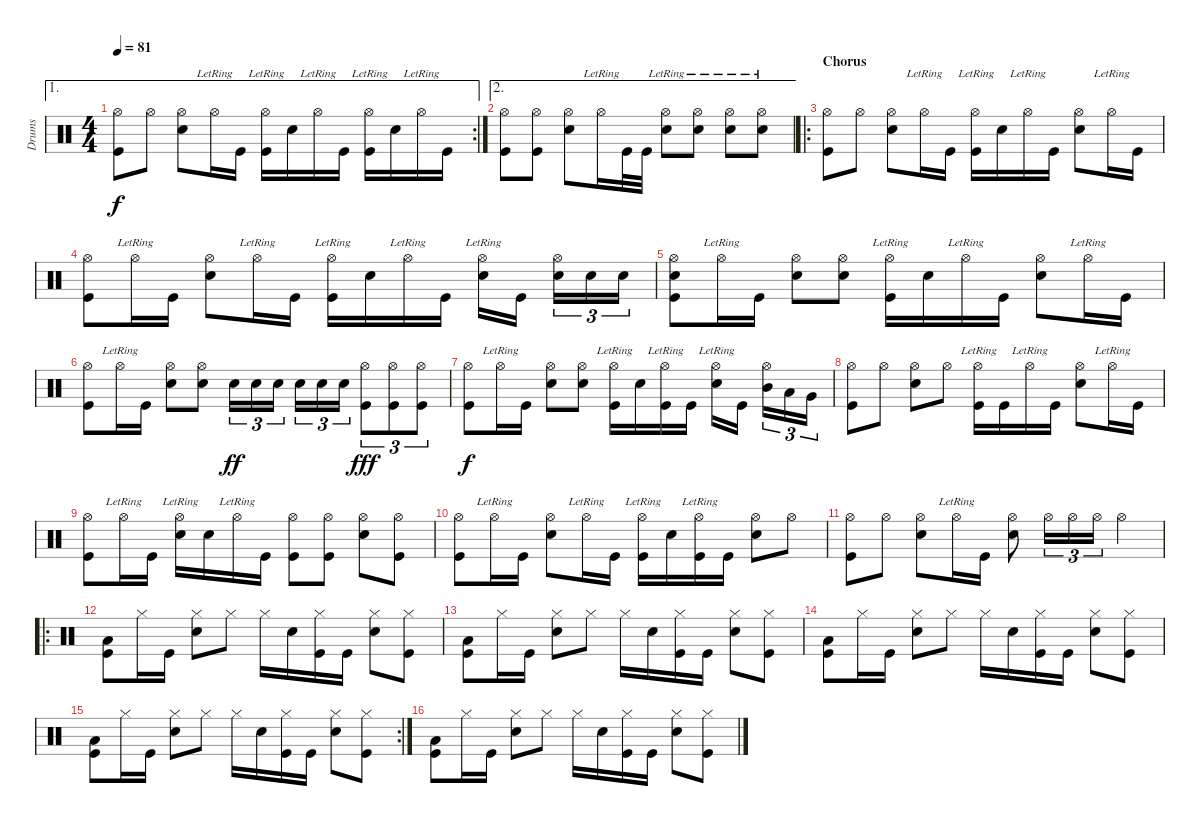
\track ("Drums" "Drums") {instrument percussion}
\staff {score}
\articulation defaults
\ae 1
\rc 2
\ts (4 4)
\tempo 81
\clef neutral
\ks c
("Hi-Hat (open)" "Kick (hit)").8{dy f} "Hi-Hat (open)".8 ("Hi-Hat (open)" "Snare (hit) 2").8 "Hi-Hat (open)"{lr}.16 "Kick (hit)".16 ("Hi-Hat (open)"{lr} "Kick (hit)").16 "Snare (hit) 2".16 "Hi-Hat (open)"{lr}.16 "Kick (hit)".16 ("Hi-Hat (open)"{lr} "Kick (hit)").16 "Snare (hit) 2".16 "Hi-Hat (open)"{lr}.16 "Kick (hit)".16 |
\ae 2
("Hi-Hat (open)" "Kick (hit)").8 ("Hi-Hat (open)" "Kick (hit)").8 ("Hi-Hat (open)" "Snare (hit) 2").8 "Hi-Hat (open)"{lr}.16 "Kick (hit)".32 "Kick (hit)".32 ("Hi-Hat (open)"{lr} "Snare (hit) 2").8 ("Hi-Hat (open)"{lr} "Snare (hit) 2").8 ("Hi-Hat (open)"{lr} "Snare (hit) 2").8 ("Hi-Hat (open)"{lr} "Snare (hit) 2").8 |
\ro
\section ("" "Chorus")
("Hi-Hat (open)" "Kick (hit)").8 "Hi-Hat (open)".8 ("Hi-Hat (open)" "Snare (hit) 2").8 "Hi-Hat (open)"{lr}.16 "Kick (hit)".16 ("Hi-Hat (open)"{lr} "Kick (hit)").16 "Snare (hit) 2".16 "Hi-Hat (open)"{lr}.16 "Kick (hit)".16 ("Hi-Hat (open)" "Snare (hit) 2").8 "Hi-Hat (open)"{lr}.16 "Kick (hit)".16 |
("Hi-Hat (open)" "Kick (hit)").8 "Hi-Hat (open)"{lr}.16 "Kick (hit)".16 ("Hi-Hat (open)" "Snare (hit) 2").8 "Hi-Hat (open)"{lr}.16 "Kick (hit)".16 ("Hi-Hat (open)"{lr} "Kick (hit)").16 "Snare (hit) 2".16 "Hi-Hat (open)"{lr}.16 "Kick (hit)".16 ("Hi-Hat (open)"{lr} "Snare (hit) 2").16 "Kick (hit)".16 ("Hi-Hat (open)" "Snare (hit) 2").16{tu (3 2)} "Snare (hit) 2".16{tu (3 2)} "Snare (hit) 2".16{tu (3 2)} |
("Hi-Hat (open)" "Snare (hit) 2" "Kick (hit)").8 "Hi-Hat (open)"{lr}.16 "Kick (hit)".16 ("Hi-Hat (open)" "Snare (hit) 2").8 ("Hi-Hat (open)" "Snare (hit) 2").8 ("Hi-Hat (open)"{lr} "Kick (hit)").16 "Snare (hit) 2".16 "Hi-Hat (open)"{lr}.16 "Kick (hit)".16 ("Hi-Hat (open)" "Snare (hit) 2").8 "Hi-Hat (open)"{lr}.16 "Kick (hit)".16 |
("Hi-Hat (open)" "Kick (hit)").8 "Hi-Hat (open)"{lr}.16 "Kick (hit)".16 ("Hi-Hat (open)" "Snare (hit) 2").8 ("Hi-Hat (open)" "Snare (hit) 2").8 "Snare (hit) 2".16{tu (3 2) dy ff} "Snare (hit) 2".16{tu (3 2)} "Snare (hit) 2".16{tu (3 2)} "Snare (hit) 2".16{tu (3 2)} "Snare (hit) 2".16{tu (3 2)} "Snare (hit) 2".16{tu (3 2)} ("Hi-Hat (open)" "Kick (hit)").8{tu (3 2) dy fff} ("Hi-Hat (open)" "Kick (hit)").8{tu (3 2)} ("Hi-Hat (open)" "Kick (hit)").8{tu (3 2)} |
("Hi-Hat (open)" "Kick (hit)").8{dy f} "Hi-Hat (open)"{lr}.16 "Kick (hit)".16 ("Hi-Hat (open)" "Snare (hit) 2").8 ("Hi-Hat (open)" "Snare (hit) 2").8 ("Hi-Hat (open)"{lr} "Kick (hit)").16 "Snare (hit) 2".16 ("Hi-Hat (open)"{lr} "Kick (hit)").16 "Kick (hit)".16 ("Hi-Hat (open)"{lr} "Snare (hit) 2").16 "Kick (hit)".16 ("Hi-Hat (open)" "Mid Tom (hit)").16{tu (3 2)} "Low Tom (hit)".16{tu (3 2)} "Very Low Tom (hit)".16{tu (3 2)} |
("Hi-Hat (open)" "Kick (hit)").8 "Hi-Hat (open)".8 ("Hi-Hat (open)" "Snare (hit) 2").8 "Hi-Hat (open)".8 ("Hi-Hat (open)"{lr} "Kick (hit)").16 "Kick (hit)".16 "Hi-Hat (open)"{lr}.16 "Kick (hit)".16 ("Hi-Hat (open)" "Snare (hit) 2").8 "Hi-Hat (open)"{lr}.16 "Kick (hit)".16 |
("Hi-Hat (open)" "Kick (hit)").8 "Hi-Hat (open)"{lr}.16 "Kick (hit)".16 ("Hi-Hat (open)"{lr} "Snare (hit) 2").16 "Snare (hit) 2".16 "Hi-Hat (open)"{lr}.16 "Kick (hit)".16 ("Hi-Hat (open)" "Kick (hit)").8 ("Hi-Hat (open)" "Kick (hit)").8 ("Hi-Hat (open)" "Snare (hit) 2").8 ("Hi-Hat (open)" "Kick (hit)").8 |
("Hi-Hat (open)" "Kick (hit)").8 "Hi-Hat (open)"{lr}.16 "Kick (hit)".16 ("Hi-Hat (open)" "Snare (hit) 2").8 "Hi-Hat (open)"{lr}.16 "Kick (hit)".16 ("Hi-Hat (open)"{lr} "Kick (hit)").16 "Snare (hit) 2".16 ("Hi-Hat (open)"{lr} "Kick (hit)").16 "Kick (hit)".16 ("Hi-Hat (open)" "Snare (hit) 2").8 "Hi-Hat (open)".8 |
("Hi-Hat (open)" "Kick (hit)").8 "Hi-Hat (open)".8 ("Hi-Hat (open)" "Snare (hit) 2").8 "Hi-Hat (open)"{lr}.16 "Kick (hit)".16 ("Hi-Hat (open)" "Snare (hit) 2").8 "Hi-Hat (open)".16{tu (3 2)} "Hi-Hat (open)".16{tu (3 2)} "Hi-Hat (open)".16{tu (3 2)} "Hi-Hat (open)".4 |
\ro
("Low Floor Tom (hit)" "Kick (hit)").8 "Hi-Hat (closed)".16 "Kick (hit)".16 ("Hi-Hat (closed)" "Electric Snare (hit)").8 "Hi-Hat (closed)".8 "Hi-Hat (closed)".16 "Electric Snare (hit)".16 ("Hi-Hat (closed)" "Kick (hit)").16 "Kick (hit)".16 ("Hi-Hat (closed)" "Electric Snare (hit)").8 ("Hi-Hat (closed)" "Kick (hit)").8 |
("Low Floor Tom (hit)" "Kick (hit)").8 "Hi-Hat (closed)".16 "Kick (hit)".16 ("Hi-Hat (closed)" "Electric Snare (hit)").8 "Hi-Hat (closed)".8 "Hi-Hat (closed)".16 "Electric Snare (hit)".16 ("Hi-Hat (closed)" "Kick (hit)").16 "Kick (hit)".16 ("Hi-Hat (closed)" "Electric Snare (hit)").8 ("Hi-Hat (closed)" "Kick (hit)").8 |
("Low Floor Tom (hit)" "Kick (hit)").8 "Hi-Hat (closed)".16 "Kick (hit)".16 ("Hi-Hat (closed)" "Electric Snare (hit)").8 "Hi-Hat (closed)".8 "Hi-Hat (closed)".16 "Electric Snare (hit)".16 ("Hi-Hat (closed)" "Kick (hit)").16 "Kick (hit)".16 ("Hi-Hat (closed)" "Electric Snare (hit)").8 ("Hi-Hat (closed)" "Kick (hit)").8 |
\rc 2
("Low Floor Tom (hit)" "Kick (hit)").8 "Hi-Hat (closed)".16 "Kick (hit)".16 ("Hi-Hat (closed)" "Electric Snare (hit)").8 "Hi-Hat (closed)".8 "Hi-Hat (closed)".16 "Electric Snare (hit)".16 ("Hi-Hat (closed)" "Kick (hit)").16 "Kick (hit)".16 ("Hi-Hat (closed)" "Electric Snare (hit)").8 ("Hi-Hat (closed)" "Kick (hit)").8 |
("Low Floor Tom (hit)" "Kick (hit)").8 "Hi-Hat (closed)".16 "Kick (hit)".16 ("Hi-Hat (closed)" "Electric Snare (hit)").8 "Hi-Hat (closed)".8 "Hi-Hat (closed)".16 "Electric Snare (hit)".16 ("Hi-Hat (closed)" "Kick (hit)").16 "Kick (hit)".16 ("Hi-Hat (closed)" "Electric Snare (hit)").8 ("Hi-Hat (closed)" "Kick (hit)").8
